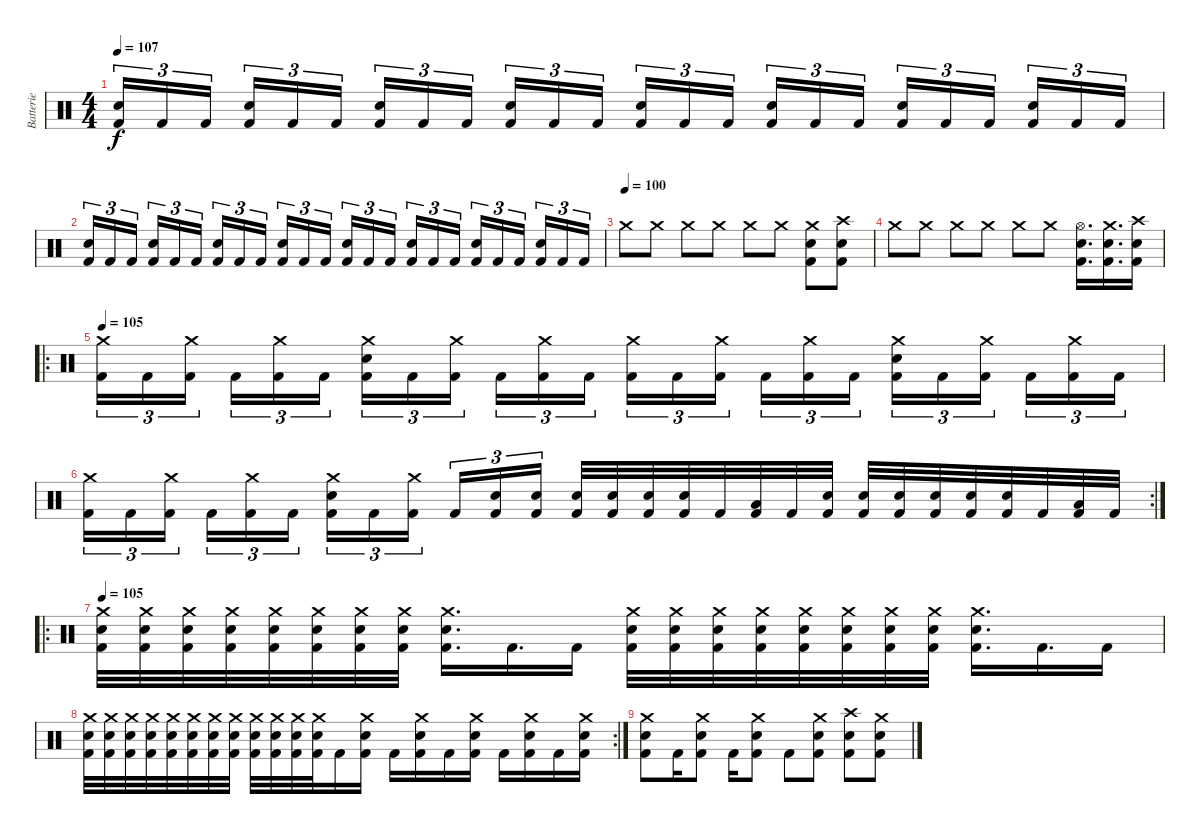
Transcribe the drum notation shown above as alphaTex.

\track ("Batterie" "Batterie") {instrument percussion}
\staff {score}
\articulation defaults
\ts (4 4)
\tempo 107
\clef neutral
\ks c
("Electric Snare (hit)" "Kick (hit) 2").16{tu (3 2) dy f} "Kick (hit) 2".16{tu (3 2)} "Kick (hit) 2".16{tu (3 2) beam splitsecondary} ("Electric Snare (hit)" "Kick (hit) 2").16{tu (3 2)} "Kick (hit) 2".16{tu (3 2)} "Kick (hit) 2".16{tu (3 2)} ("Electric Snare (hit)" "Kick (hit) 2").16{tu (3 2)} "Kick (hit) 2".16{tu (3 2)} "Kick (hit) 2".16{tu (3 2) beam splitsecondary} ("Electric Snare (hit)" "Kick (hit) 2").16{tu (3 2)} "Kick (hit) 2".16{tu (3 2)} "Kick (hit) 2".16{tu (3 2)} ("Electric Snare (hit)" "Kick (hit) 2").16{tu (3 2)} "Kick (hit) 2".16{tu (3 2)} "Kick (hit) 2".16{tu (3 2) beam splitsecondary} ("Electric Snare (hit)" "Kick (hit) 2").16{tu (3 2)} "Kick (hit) 2".16{tu (3 2)} "Kick (hit) 2".16{tu (3 2)} ("Electric Snare (hit)" "Kick (hit) 2").16{tu (3 2)} "Kick (hit) 2".16{tu (3 2)} "Kick (hit) 2".16{tu (3 2) beam splitsecondary} ("Electric Snare (hit)" "Kick (hit) 2").16{tu (3 2)} "Kick (hit) 2".16{tu (3 2)} "Kick (hit) 2".16{tu (3 2)} |
("Electric Snare (hit)" "Kick (hit) 2").16{tu (3 2)} "Kick (hit) 2".16{tu (3 2)} "Kick (hit) 2".16{tu (3 2) beam splitsecondary} ("Electric Snare (hit)" "Kick (hit) 2").16{tu (3 2)} "Kick (hit) 2".16{tu (3 2)} "Kick (hit) 2".16{tu (3 2)} ("Electric Snare (hit)" "Kick (hit) 2").16{tu (3 2)} "Kick (hit) 2".16{tu (3 2)} "Kick (hit) 2".16{tu (3 2) beam splitsecondary} ("Electric Snare (hit)" "Kick (hit) 2").16{tu (3 2)} "Kick (hit) 2".16{tu (3 2)} "Kick (hit) 2".16{tu (3 2)} ("Electric Snare (hit)" "Kick (hit) 2").16{tu (3 2)} "Kick (hit) 2".16{tu (3 2)} "Kick (hit) 2".16{tu (3 2) beam splitsecondary} ("Electric Snare (hit)" "Kick (hit) 2").16{tu (3 2)} "Kick (hit) 2".16{tu (3 2)} "Kick (hit) 2".16{tu (3 2)} ("Snare (hit) 2" "Kick (hit) 2").16{tu (3 2)} "Kick (hit) 2".16{tu (3 2)} "Kick (hit) 2".16{tu (3 2) beam splitsecondary} ("Snare (hit) 2" "Kick (hit) 2").16{tu (3 2)} "Kick (hit) 2".16{tu (3 2)} "Kick (hit) 2".16{tu (3 2)} |
\tempo (100)
"Crash medium (hit)".8 "Crash medium (hit)".8 "Crash medium (hit)".8 "Crash medium (hit)".8 "Crash medium (hit)".8 "Crash medium (hit)".8 ("Crash medium (hit)" "Electric Snare (hit)" "Kick (hit) 2").8 ("Crash high (hit)" "Electric Snare (hit)" "Kick (hit) 2").8 |
"Crash medium (hit)".8 "Crash medium (hit)".8 "Crash medium (hit)".8 "Crash medium (hit)".8 "Crash medium (hit)".8 "Crash medium (hit)".8 ("Hi-Hat (open)" "Electric Snare (hit)" "Kick (hit) 2").16{d} ("Crash medium (hit)" "Electric Snare (hit)" "Kick (hit) 2").16{d} ("Crash high (hit)" "Electric Snare (hit)" "Kick (hit) 2").16 |
\ro
\tempo 105
("Crash medium (hit)" "Kick (hit) 2").16{tu (3 2)} "Kick (hit) 2".16{tu (3 2)} ("Crash medium (hit)" "Kick (hit) 2").16{tu (3 2) beam splitsecondary} "Kick (hit) 2".16{tu (3 2)} ("Crash medium (hit)" "Kick (hit) 2").16{tu (3 2)} "Kick (hit) 2".16{tu (3 2)} ("Crash medium (hit)" "Electric Snare (hit)" "Kick (hit) 2").16{tu (3 2)} "Kick (hit) 2".16{tu (3 2)} ("Crash medium (hit)" "Kick (hit) 2").16{tu (3 2) beam splitsecondary} "Kick (hit) 2".16{tu (3 2)} ("Crash medium (hit)" "Kick (hit) 2").16{tu (3 2)} "Kick (hit) 2".16{tu (3 2)} ("Crash medium (hit)" "Kick (hit) 2").16{tu (3 2)} "Kick (hit) 2".16{tu (3 2)} ("Crash medium (hit)" "Kick (hit) 2").16{tu (3 2) beam splitsecondary} "Kick (hit) 2".16{tu (3 2)} ("Crash medium (hit)" "Kick (hit) 2").16{tu (3 2)} "Kick (hit) 2".16{tu (3 2)} ("Crash medium (hit)" "Electric Snare (hit)" "Kick (hit) 2").16{tu (3 2)} "Kick (hit) 2".16{tu (3 2)} ("Crash medium (hit)" "Kick (hit) 2").16{tu (3 2) beam splitsecondary} "Kick (hit) 2".16{tu (3 2)} ("Crash medium (hit)" "Kick (hit) 2").16{tu (3 2)} "Kick (hit) 2".16{tu (3 2)} |
\rc 2
("Crash medium (hit)" "Kick (hit) 2").16{tu (3 2)} "Kick (hit) 2".16{tu (3 2)} ("Crash medium (hit)" "Kick (hit) 2").16{tu (3 2) beam splitsecondary} "Kick (hit) 2".16{tu (3 2)} ("Crash medium (hit)" "Kick (hit) 2").16{tu (3 2)} "Kick (hit) 2".16{tu (3 2)} ("Crash medium (hit)" "Electric Snare (hit)" "Kick (hit) 2").16{tu (3 2)} "Kick (hit) 2".16{tu (3 2)} ("Crash medium (hit)" "Kick (hit) 2").16{tu (3 2) beam splitsecondary} "Kick (hit) 2".16{tu (3 2)} ("Electric Snare (hit)" "Kick (hit) 2").16{tu (3 2)} ("Electric Snare (hit)" "Kick (hit) 2").16{tu (3 2)} ("Electric Snare (hit)" "Kick (hit) 2").32 ("Electric Snare (hit)" "Kick (hit) 2").32 ("Electric Snare (hit)" "Kick (hit) 2").32 ("Electric Snare (hit)" "Kick (hit) 2").32 "Kick (hit) 2".32 ("Low Floor Tom (hit)" "Kick (hit) 2").32 "Kick (hit) 2".32 ("Electric Snare (hit)" "Kick (hit) 2").32 ("Electric Snare (hit)" "Kick (hit) 2").32 ("Electric Snare (hit)" "Kick (hit) 2").32 ("Electric Snare (hit)" "Kick (hit) 2").32 ("Electric Snare (hit)" "Kick (hit) 2").32 ("Electric Snare (hit)" "Kick (hit) 2").32 "Kick (hit) 2".32 ("Low Floor Tom (hit)" "Kick (hit) 2").32 "Kick (hit) 2".32 |
\ro
\tempo 105
("Crash medium (hit)" "Electric Snare (hit)" "Kick (hit) 2").32 ("Crash medium (hit)" "Electric Snare (hit)" "Kick (hit) 2").32 ("Crash medium (hit)" "Electric Snare (hit)" "Kick (hit) 2").32 ("Crash medium (hit)" "Electric Snare (hit)" "Kick (hit) 2").32 ("Crash medium (hit)" "Electric Snare (hit)" "Kick (hit) 2").32 ("Crash medium (hit)" "Electric Snare (hit)" "Kick (hit) 2").32 ("Crash medium (hit)" "Electric Snare (hit)" "Kick (hit) 2").32 ("Crash medium (hit)" "Electric Snare (hit)" "Kick (hit) 2").32 ("Crash medium (hit)" "Electric Snare (hit)" "Kick (hit) 2").16{d} "Kick (hit) 2".16{d} "Kick (hit) 2".16 ("Crash medium (hit)" "Electric Snare (hit)" "Kick (hit) 2").32 ("Crash medium (hit)" "Electric Snare (hit)" "Kick (hit) 2").32 ("Crash medium (hit)" "Electric Snare (hit)" "Kick (hit) 2").32 ("Crash medium (hit)" "Electric Snare (hit)" "Kick (hit) 2").32 ("Crash medium (hit)" "Electric Snare (hit)" "Kick (hit) 2").32 ("Crash medium (hit)" "Electric Snare (hit)" "Kick (hit) 2").32 ("Crash medium (hit)" "Electric Snare (hit)" "Kick (hit) 2").32 ("Crash medium (hit)" "Electric Snare (hit)" "Kick (hit) 2").32 ("Crash medium (hit)" "Electric Snare (hit)" "Kick (hit) 2").16{d} "Kick (hit) 2".16{d} "Kick (hit) 2".16 |
\rc 2
("Crash medium (hit)" "Electric Snare (hit)" "Kick (hit) 2").32 ("Crash medium (hit)" "Electric Snare (hit)" "Kick (hit) 2").32 ("Crash medium (hit)" "Electric Snare (hit)" "Kick (hit) 2").32 ("Crash medium (hit)" "Electric Snare (hit)" "Kick (hit) 2").32 ("Crash medium (hit)" "Electric Snare (hit)" "Kick (hit) 2").32 ("Crash medium (hit)" "Electric Snare (hit)" "Kick (hit) 2").32 ("Crash medium (hit)" "Electric Snare (hit)" "Kick (hit) 2").32 ("Crash medium (hit)" "Electric Snare (hit)" "Kick (hit) 2").32 ("Crash medium (hit)" "Electric Snare (hit)" "Kick (hit) 2").32 ("Crash medium (hit)" "Electric Snare (hit)" "Kick (hit) 2").32 ("Crash medium (hit)" "Electric Snare (hit)" "Kick (hit) 2").32 ("Crash medium (hit)" "Electric Snare (hit)" "Kick (hit) 2").32 "Kick (hit) 2".16 ("Crash medium (hit)" "Electric Snare (hit)" "Kick (hit) 2").16 "Kick (hit) 2".16 ("Crash medium (hit)" "Electric Snare (hit)" "Kick (hit) 2").16 "Kick (hit) 2".16 ("Crash medium (hit)" "Electric Snare (hit)" "Kick (hit) 2").16 "Kick (hit) 2".16 ("Crash medium (hit)" "Electric Snare (hit)" "Kick (hit) 2").16 "Kick (hit) 2".16 ("Crash medium (hit)" "Electric Snare (hit)" "Kick (hit) 2").16 |
("Crash medium (hit)" "Electric Snare (hit)" "Kick (hit) 2").8 "Kick (hit) 2".16 ("Crash medium (hit)" "Electric Snare (hit)" "Kick (hit) 2").8 "Kick (hit) 2".16 ("Crash medium (hit)" "Electric Snare (hit)" "Kick (hit) 2").8 "Kick (hit) 2".8 ("Crash medium (hit)" "Electric Snare (hit)" "Kick (hit) 2").8 ("Crash high (hit)" "Electric Snare (hit)" "Kick (hit) 2").8 ("Crash medium (hit)" "Electric Snare (hit)" "Kick (hit) 2").8
